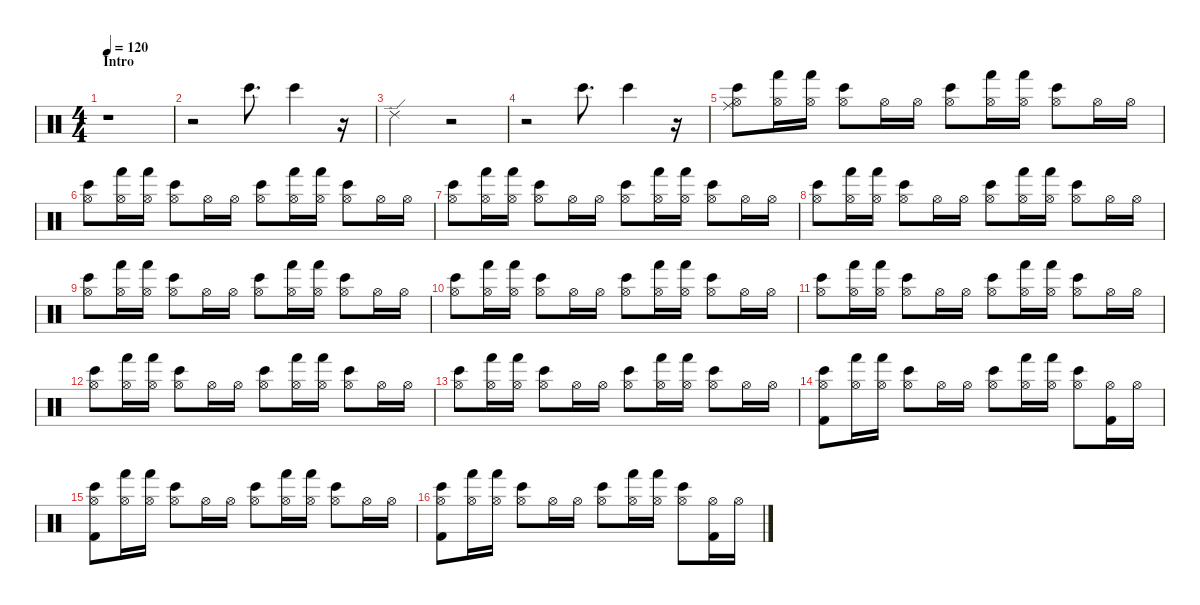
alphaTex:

\defaultSystemsLayout 4
\hideDynamics
\bracketExtendMode nobrackets
\singleTrackTrackNamePolicy hidden
\multiTrackTrackNamePolicy hidden
\firstSystemTrackNameMode fullname
\firstSystemTrackNameOrientation horizontal
\otherSystemsTrackNameOrientation horizontal
\track ("Bateria" "drm.") {instrument percussion}
\staff {score}
\articulation defaults
\ts (4 4)
\beaming (8 2 2 2 2)
\section ("" "Intro")
\tempo 120
\clef neutral
\ks c
r.1{dy fff beam Down} |
r.2{beam Down} "Bongo High (hit)".8{d beam Down} "Bongo High (hit)".4{beam Down} r.16{beam Down} |
"Ride (edge) 2".2{beam Down} r.2{beam Down} |
r.2{beam Down} "Bongo High (hit)".8{d beam Down} "Bongo High (hit)".4{beam Down} r.16{beam Down} |
("Hi-Hat (open)" "Bongo High (hit)" "Ride (middle)").8{dy mf beam Down} ("Hi-Hat (open)" "Hand (hit)").16{dy mp beam Down} ("Hi-Hat (open)" "Hand (hit)").16{beam Down} ("Hi-Hat (open)" "Bongo High (hit)").8{dy f beam Down} "Hi-Hat (open)".16{dy mp beam Down} "Hi-Hat (open)".16{beam Down} ("Hi-Hat (open)" "Bongo High (hit)").8{dy mf beam Down} ("Hi-Hat (open)" "Hand (hit)").16{dy mp beam Down} ("Hi-Hat (open)" "Hand (hit)").16{beam Down} ("Hi-Hat (open)" "Bongo High (hit)").8{dy f beam Down} "Hi-Hat (open)".16{dy mp beam Down} "Hi-Hat (open)".16{beam Down} |
("Hi-Hat (open)" "Bongo High (hit)").8{dy mf beam Down} ("Hi-Hat (open)" "Hand (hit)").16{dy mp beam Down} ("Hi-Hat (open)" "Hand (hit)").16{beam Down} ("Hi-Hat (open)" "Bongo High (hit)").8{dy f beam Down} "Hi-Hat (open)".16{dy mp beam Down} "Hi-Hat (open)".16{beam Down} ("Hi-Hat (open)" "Bongo High (hit)").8{dy mf beam Down} ("Hi-Hat (open)" "Hand (hit)").16{dy mp beam Down} ("Hi-Hat (open)" "Hand (hit)").16{beam Down} ("Hi-Hat (open)" "Bongo High (hit)").8{dy f beam Down} "Hi-Hat (open)".16{dy mp beam Down} "Hi-Hat (open)".16{beam Down} |
("Hi-Hat (open)" "Bongo High (hit)").8{dy mf beam Down} ("Hi-Hat (open)" "Hand (hit)").16{dy mp beam Down} ("Hi-Hat (open)" "Hand (hit)").16{beam Down} ("Hi-Hat (open)" "Bongo High (hit)").8{dy f beam Down} "Hi-Hat (open)".16{dy mp beam Down} "Hi-Hat (open)".16{beam Down} ("Hi-Hat (open)" "Bongo High (hit)").8{dy mf beam Down} ("Hi-Hat (open)" "Hand (hit)").16{dy mp beam Down} ("Hi-Hat (open)" "Hand (hit)").16{beam Down} ("Hi-Hat (open)" "Bongo High (hit)").8{dy f beam Down} "Hi-Hat (open)".16{dy mp beam Down} "Hi-Hat (open)".16{beam Down} |
("Hi-Hat (open)" "Bongo High (hit)").8{dy mf beam Down} ("Hi-Hat (open)" "Hand (hit)").16{dy mp beam Down} ("Hi-Hat (open)" "Hand (hit)").16{beam Down} ("Hi-Hat (open)" "Bongo High (hit)").8{dy f beam Down} "Hi-Hat (open)".16{dy mp beam Down} "Hi-Hat (open)".16{beam Down} ("Hi-Hat (open)" "Bongo High (hit)").8{dy mf beam Down} ("Hi-Hat (open)" "Hand (hit)").16{dy mp beam Down} ("Hi-Hat (open)" "Hand (hit)").16{beam Down} ("Hi-Hat (open)" "Bongo High (hit)").8{dy f beam Down} "Hi-Hat (open)".16{dy mp beam Down} "Hi-Hat (open)".16{beam Down} |
("Hi-Hat (open)" "Bongo High (hit)").8{dy mf beam Down} ("Hi-Hat (open)" "Hand (hit)").16{dy mp beam Down} ("Hi-Hat (open)" "Hand (hit)").16{beam Down} ("Hi-Hat (open)" "Bongo High (hit)").8{dy f beam Down} "Hi-Hat (open)".16{dy mp beam Down} "Hi-Hat (open)".16{beam Down} ("Hi-Hat (open)" "Bongo High (hit)").8{dy mf beam Down} ("Hi-Hat (open)" "Hand (hit)").16{dy mp beam Down} ("Hi-Hat (open)" "Hand (hit)").16{beam Down} ("Hi-Hat (open)" "Bongo High (hit)").8{dy f beam Down} "Hi-Hat (open)".16{dy mp beam Down} "Hi-Hat (open)".16{beam Down} |
("Hi-Hat (open)" "Bongo High (hit)").8{dy mf beam Down} ("Hi-Hat (open)" "Hand (hit)").16{dy mp beam Down} ("Hi-Hat (open)" "Hand (hit)").16{beam Down} ("Hi-Hat (open)" "Bongo High (hit)").8{dy f beam Down} "Hi-Hat (open)".16{dy mp beam Down} "Hi-Hat (open)".16{beam Down} ("Hi-Hat (open)" "Bongo High (hit)").8{dy mf beam Down} ("Hi-Hat (open)" "Hand (hit)").16{dy mp beam Down} ("Hi-Hat (open)" "Hand (hit)").16{beam Down} ("Hi-Hat (open)" "Bongo High (hit)").8{dy f beam Down} "Hi-Hat (open)".16{dy mp beam Down} "Hi-Hat (open)".16{beam Down} |
("Hi-Hat (open)" "Bongo High (hit)").8{dy mf beam Down} ("Hi-Hat (open)" "Hand (hit)").16{dy mp beam Down} ("Hi-Hat (open)" "Hand (hit)").16{beam Down} ("Hi-Hat (open)" "Bongo High (hit)").8{dy f beam Down} "Hi-Hat (open)".16{dy mp beam Down} "Hi-Hat (open)".16{beam Down} ("Hi-Hat (open)" "Bongo High (hit)").8{dy mf beam Down} ("Hi-Hat (open)" "Hand (hit)").16{dy mp beam Down} ("Hi-Hat (open)" "Hand (hit)").16{beam Down} ("Hi-Hat (open)" "Bongo High (hit)").8{dy f beam Down} "Hi-Hat (open)".16{dy mp beam Down} "Hi-Hat (open)".16{beam Down} |
("Hi-Hat (open)" "Bongo High (hit)").8{dy mf beam Down} ("Hi-Hat (open)" "Hand (hit)").16{dy mp beam Down} ("Hi-Hat (open)" "Hand (hit)").16{beam Down} ("Hi-Hat (open)" "Bongo High (hit)").8{dy f beam Down} "Hi-Hat (open)".16{dy mp beam Down} "Hi-Hat (open)".16{beam Down} ("Hi-Hat (open)" "Bongo High (hit)").8{dy mf beam Down} ("Hi-Hat (open)" "Hand (hit)").16{dy mp beam Down} ("Hi-Hat (open)" "Hand (hit)").16{beam Down} ("Hi-Hat (open)" "Bongo High (hit)").8{dy f beam Down} "Hi-Hat (open)".16{dy mp beam Down} "Hi-Hat (open)".16{beam Down} |
("Hi-Hat (open)" "Bongo High (hit)").8{dy mf beam Down} ("Hi-Hat (open)" "Hand (hit)").16{dy mp beam Down} ("Hi-Hat (open)" "Hand (hit)").16{beam Down} ("Hi-Hat (open)" "Bongo High (hit)").8{dy f beam Down} "Hi-Hat (open)".16{dy mp beam Down} "Hi-Hat (open)".16{beam Down} ("Hi-Hat (open)" "Bongo High (hit)").8{dy mf beam Down} ("Hi-Hat (open)" "Hand (hit)").16{dy mp beam Down} ("Hi-Hat (open)" "Hand (hit)").16{beam Down} ("Hi-Hat (open)" "Bongo High (hit)").8{dy f beam Down} "Hi-Hat (open)".16{dy mp beam Down} "Hi-Hat (open)".16{beam Down} |
("Hi-Hat (open)" "Kick (hit) 2" "Bongo High (hit)").8{dy mf beam Down} ("Hi-Hat (open)" "Hand (hit)").16{dy mp beam Down} ("Hi-Hat (open)" "Hand (hit)").16{beam Down} ("Hi-Hat (open)" "Bongo High (hit)").8{dy f beam Down} "Hi-Hat (open)".16{dy mp beam Down} "Hi-Hat (open)".16{beam Down} ("Hi-Hat (open)" "Bongo High (hit)").8{dy mf beam Down} ("Hi-Hat (open)" "Hand (hit)").16{dy mp beam Down} ("Hi-Hat (open)" "Hand (hit)").16{beam Down} ("Hi-Hat (open)" "Bongo High (hit)").8{dy f beam Down} ("Hi-Hat (open)" "Kick (hit) 2").16{dy mp beam Down} "Hi-Hat (open)".16{beam Down} |
("Hi-Hat (open)" "Kick (hit) 2" "Bongo High (hit)").8{dy mf beam Down} ("Hi-Hat (open)" "Hand (hit)").16{dy mp beam Down} ("Hi-Hat (open)" "Hand (hit)").16{beam Down} ("Hi-Hat (open)" "Bongo High (hit)").8{dy f beam Down} "Hi-Hat (open)".16{dy mp beam Down} "Hi-Hat (open)".16{beam Down} ("Hi-Hat (open)" "Bongo High (hit)").8{dy mf beam Down} ("Hi-Hat (open)" "Hand (hit)").16{dy mp beam Down} ("Hi-Hat (open)" "Hand (hit)").16{beam Down} ("Hi-Hat (open)" "Bongo High (hit)").8{dy f beam Down} "Hi-Hat (open)".16{dy mp beam Down} "Hi-Hat (open)".16{beam Down} |
("Hi-Hat (open)" "Kick (hit) 2" "Bongo High (hit)").8{dy mf beam Down} ("Hi-Hat (open)" "Hand (hit)").16{dy mp beam Down} ("Hi-Hat (open)" "Hand (hit)").16{beam Down} ("Hi-Hat (open)" "Bongo High (hit)").8{dy f beam Down} "Hi-Hat (open)".16{dy mp beam Down} "Hi-Hat (open)".16{beam Down} ("Hi-Hat (open)" "Bongo High (hit)").8{dy mf beam Down} ("Hi-Hat (open)" "Hand (hit)").16{dy mp beam Down} ("Hi-Hat (open)" "Hand (hit)").16{beam Down} ("Hi-Hat (open)" "Bongo High (hit)").8{dy f beam Down} ("Hi-Hat (open)" "Kick (hit) 2").16{dy mp beam Down} "Hi-Hat (open)".16{beam Down}
